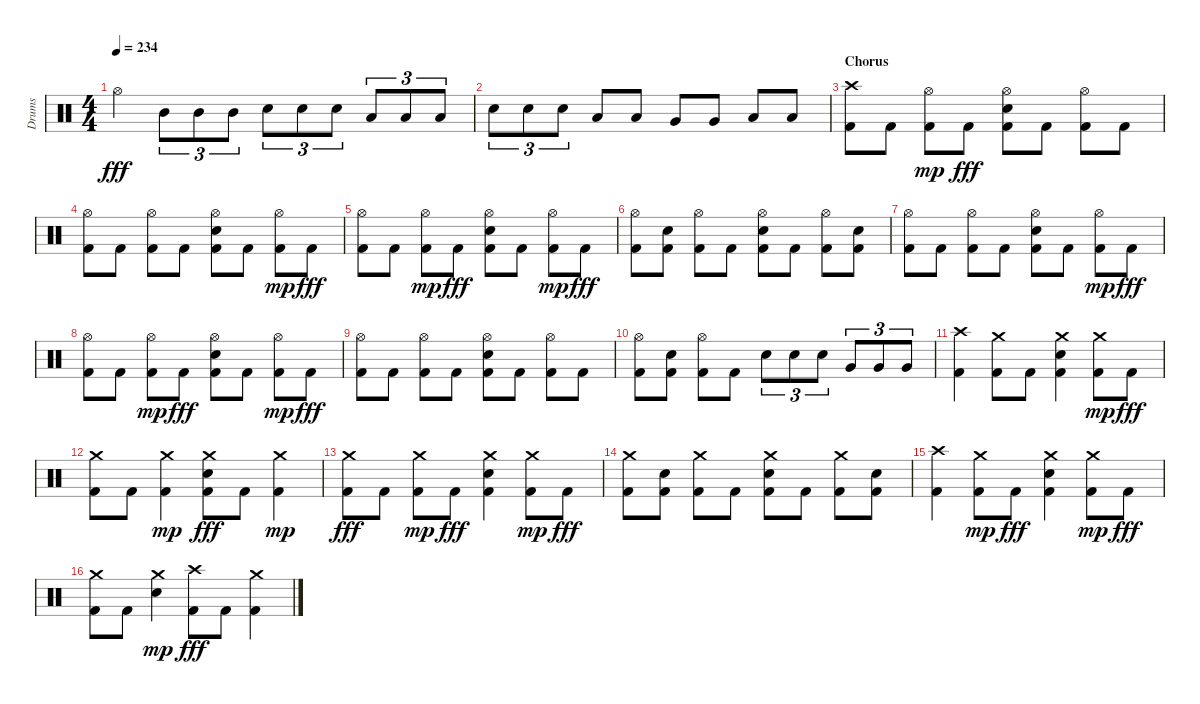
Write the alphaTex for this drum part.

\track ("Drums" "Drums") {instrument percussion}
\staff {score}
\articulation defaults
\ts (4 4)
\tempo 234
\clef neutral
\ks aminor "Hi-Hat (open)".4{dy fff} "Mid Tom (hit)".8{tu (3 2)} "Mid Tom (hit)".8{tu (3 2)} "Mid Tom (hit)".8{tu (3 2)} "Snare (hit) 2".8{tu (3 2)} "Snare (hit) 2".8{tu (3 2)} "Snare (hit) 2".8{tu (3 2)} "Low Tom (hit)".8{tu (3 2)} "Low Tom (hit)".8{tu (3 2)} "Low Tom (hit)".8{tu (3 2)}
|
"Snare (hit) 2".8{tu (3 2)} "Snare (hit) 2".8{tu (3 2)} "Snare (hit) 2".8{tu (3 2)} "Low Tom (hit)".8 "Low Tom (hit)".8 "Very Low Tom (hit)".8 "Very Low Tom (hit)".8 "Low Floor Tom (hit)".8 "Low Floor Tom (hit)".8 |
\section ("" "Chorus")
("Kick (hit) 2" "Crash high (hit)").8 "Kick (hit) 2".8 ("Kick (hit) 2" "Hi-Hat (open)").8{dy mp} "Kick (hit) 2".8{dy fff} ("Kick (hit) 2" "Snare (hit) 2" "Hi-Hat (open)").8 "Kick (hit) 2".8 ("Kick (hit) 2" "Hi-Hat (open)").8 "Kick (hit) 2".8 |
("Kick (hit) 2" "Hi-Hat (open)").8 "Kick (hit) 2".8 ("Hi-Hat (open)" "Kick (hit) 2").8 "Kick (hit) 2".8 ("Hi-Hat (open)" "Kick (hit) 2" "Snare (hit) 2").8 "Kick (hit) 2".8 ("Kick (hit) 2" "Hi-Hat (open)").8{dy mp} "Kick (hit) 2".8{dy fff} |
("Hi-Hat (open)" "Kick (hit) 2").8 "Kick (hit) 2".8 ("Hi-Hat (open)" "Kick (hit) 2").8{dy mp} "Kick (hit) 2".8{dy fff} ("Hi-Hat (open)" "Snare (hit) 2" "Kick (hit) 2").8 "Kick (hit) 2".8 ("Hi-Hat (open)" "Kick (hit) 2").8{dy mp} "Kick (hit) 2".8{dy fff} |
("Hi-Hat (open)" "Kick (hit) 2").8 ("Snare (hit) 2" "Kick (hit) 2").8 ("Kick (hit) 2" "Hi-Hat (open)").8 "Kick (hit) 2".8 ("Hi-Hat (open)" "Kick (hit) 2" "Snare (hit) 2").8 "Kick (hit) 2".8 ("Hi-Hat (open)" "Kick (hit) 2").8 ("Kick (hit) 2" "Snare (hit) 2").8 |
("Hi-Hat (open)" "Kick (hit) 2").8 "Kick (hit) 2".8 ("Hi-Hat (open)" "Kick (hit) 2").8 "Kick (hit) 2".8 ("Snare (hit) 2" "Hi-Hat (open)" "Kick (hit) 2").8 "Kick (hit) 2".8 ("Hi-Hat (open)" "Kick (hit) 2").8{dy mp} "Kick (hit) 2".8{dy fff} |
("Kick (hit) 2" "Hi-Hat (open)").8 "Kick (hit) 2".8 ("Kick (hit) 2" "Hi-Hat (open)").8{dy mp} "Kick (hit) 2".8{dy fff} ("Snare (hit) 2" "Hi-Hat (open)" "Kick (hit) 2").8 "Kick (hit) 2".8 ("Kick (hit) 2" "Hi-Hat (open)").8{dy mp} "Kick (hit) 2".8{dy fff} |
("Kick (hit) 2" "Hi-Hat (open)").8 "Kick (hit) 2".8 ("Kick (hit) 2" "Hi-Hat (open)").8 "Kick (hit) 2".8 ("Snare (hit) 2" "Hi-Hat (open)" "Kick (hit) 2").8 "Kick (hit) 2".8 ("Hi-Hat (open)" "Kick (hit) 2").8 "Kick (hit) 2".8 |
("Hi-Hat (open)" "Kick (hit) 2").8 ("Snare (hit) 2" "Kick (hit) 2").8 ("Kick (hit) 2" "Hi-Hat (open)").8 "Kick (hit) 2".8 "Snare (hit) 2".8{tu (3 2)} "Snare (hit) 2".8{tu (3 2)} "Snare (hit) 2".8{tu (3 2)} "Very Low Tom (hit)".8{tu (3 2)} "Very Low Tom (hit)".8{tu (3 2)} "Very Low Tom (hit)".8{tu (3 2)} |
("Kick (hit) 2" "Crash high (hit)").4 ("Kick (hit) 2" "Crash medium (hit)").8 "Kick (hit) 2".8 ("Snare (hit) 2" "Kick (hit) 2" "Crash medium (hit)").4 ("Crash medium (hit)" "Kick (hit) 2").8{dy mp} "Kick (hit) 2".8{dy fff} |
("Crash medium (hit)" "Kick (hit) 2").8 "Kick (hit) 2".8 ("Kick (hit) 2" "Crash medium (hit)").4{dy mp} ("Kick (hit) 2" "Snare (hit) 2" "Crash medium (hit)").8{dy fff} "Kick (hit) 2".8 ("Kick (hit) 2" "Crash medium (hit)").4{dy mp} |
("Crash medium (hit)" "Kick (hit) 2").8{dy fff} "Kick (hit) 2".8 ("Kick (hit) 2" "Crash medium (hit)").8{dy mp} "Kick (hit) 2".8{dy fff} ("Kick (hit) 2" "Crash medium (hit)" "Snare (hit) 2").4 ("Crash medium (hit)" "Kick (hit) 2").8{dy mp} "Kick (hit) 2".8{dy fff} |
("Kick (hit) 2" "Crash medium (hit)").8 ("Kick (hit) 2" "Snare (hit) 2").8 ("Kick (hit) 2" "Crash medium (hit)").8 "Kick (hit) 2".8 ("Kick (hit) 2" "Snare (hit) 2" "Crash medium (hit)").8 "Kick (hit) 2".8 ("Kick (hit) 2" "Crash medium (hit)").8 ("Snare (hit) 2" "Kick (hit) 2").8 |
("Crash high (hit)" "Kick (hit) 2").4 ("Crash medium (hit)" "Kick (hit) 2").8{dy mp} "Kick (hit) 2".8{dy fff} ("Kick (hit) 2" "Snare (hit) 2" "Crash medium (hit)").4 ("Kick (hit) 2" "Crash medium (hit)").8{dy mp} "Kick (hit) 2".8{dy fff} |
("Kick (hit) 2" "Crash medium (hit)").8 "Kick (hit) 2".8 ("Crash medium (hit)" "Snare (hit) 2").4{dy mp} ("Crash high (hit)" "Kick (hit) 2").8{dy fff} "Kick (hit) 2".8 ("Kick (hit) 2" "Crash medium (hit)").4
